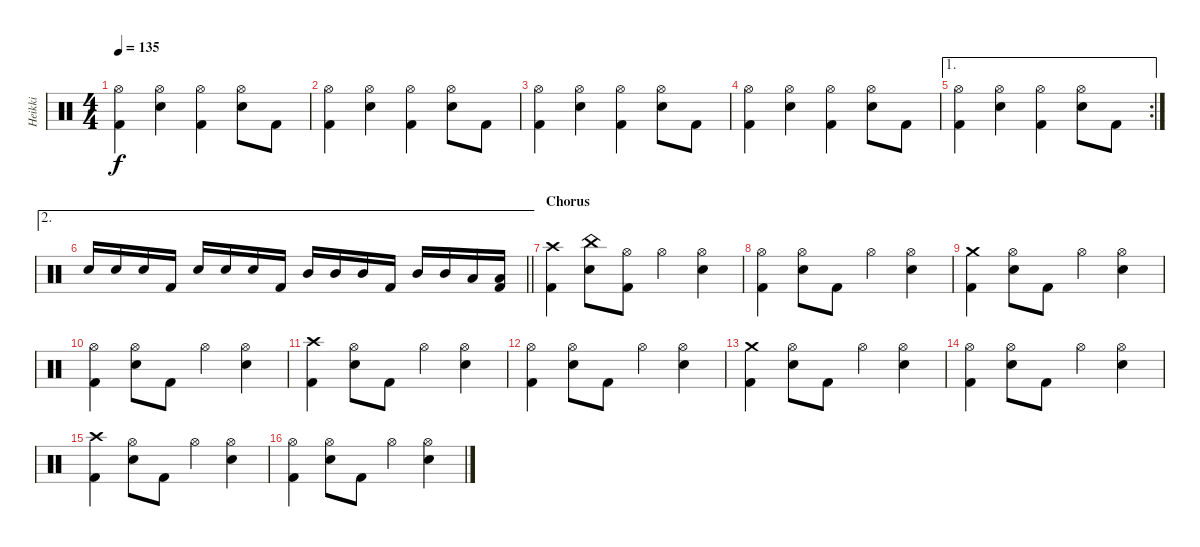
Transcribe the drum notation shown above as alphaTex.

\track ("Heikki" "Heikki") {instrument percussion}
\staff {score}
\articulation defaults
\ts (4 4)
\tempo 135
\clef neutral
\ks c
("Hi-Hat (open)" "Kick (hit) 2").4{dy f} ("Hi-Hat (open)" "Electric Snare (hit)").4 ("Hi-Hat (open)" "Kick (hit) 2").4 ("Hi-Hat (open)" "Electric Snare (hit)").8 "Kick (hit) 2".8 |
("Hi-Hat (open)" "Kick (hit) 2").4 ("Hi-Hat (open)" "Electric Snare (hit)").4 ("Hi-Hat (open)" "Kick (hit) 2").4 ("Hi-Hat (open)" "Electric Snare (hit)").8 "Kick (hit) 2".8 |
("Hi-Hat (open)" "Kick (hit) 2").4 ("Hi-Hat (open)" "Electric Snare (hit)").4 ("Hi-Hat (open)" "Kick (hit) 2").4 ("Hi-Hat (open)" "Electric Snare (hit)").8 "Kick (hit) 2".8 |
("Hi-Hat (open)" "Kick (hit) 2").4 ("Hi-Hat (open)" "Electric Snare (hit)").4 ("Hi-Hat (open)" "Kick (hit) 2").4 ("Hi-Hat (open)" "Electric Snare (hit)").8 "Kick (hit) 2".8 |
\ae 1
\rc 2
("Hi-Hat (open)" "Kick (hit) 2").4 ("Hi-Hat (open)" "Electric Snare (hit)").4 ("Hi-Hat (open)" "Kick (hit) 2").4 ("Hi-Hat (open)" "Electric Snare (hit)").8 "Kick (hit) 2".8 |
\ae 2
\barLineRight lightlight "Electric Snare (hit)".16 "Electric Snare (hit)".16 "Electric Snare (hit)".16 "Kick (hit) 2".16 "Electric Snare (hit)".16 "Electric Snare (hit)".16 "Electric Snare (hit)".16 "Kick (hit) 2".16 "Mid Tom (hit)".16 "Mid Tom (hit)".16 "Mid Tom (hit)".16 "Kick (hit) 2".16 "Mid Tom (hit)".16 "Mid Tom (hit)".16 "Low Tom (hit)".16
("Low Tom (hit)" "Kick (hit) 2").16 |
\section ("" "Chorus")
("Crash high (hit)" "Kick (hit) 2").4 ("China (hit)" "Electric Snare (hit)").8 ("Hi-Hat (open)" "Kick (hit) 2").8 "Hi-Hat (open)".4 ("Hi-Hat (open)" "Electric Snare (hit)").4 |
("Hi-Hat (open)" "Kick (hit) 2").4 ("Hi-Hat (open)" "Electric Snare (hit)").8 "Kick (hit) 2".8 "Hi-Hat (open)".4 ("Hi-Hat (open)" "Electric Snare (hit)").4 |
("Crash medium (hit)" "Kick (hit) 2").4 ("Hi-Hat (open)" "Electric Snare (hit)").8 "Kick (hit) 2".8 "Hi-Hat (open)".4 ("Hi-Hat (open)" "Electric Snare (hit)").4 |
("Hi-Hat (open)" "Kick (hit) 2").4 ("Hi-Hat (open)" "Electric Snare (hit)").8 "Kick (hit) 2".8 "Hi-Hat (open)".4 ("Hi-Hat (open)" "Electric Snare (hit)").4 |
("Crash high (hit)" "Kick (hit) 2").4 ("Hi-Hat (open)" "Electric Snare (hit)").8 "Kick (hit) 2".8 "Hi-Hat (open)".4 ("Hi-Hat (open)" "Electric Snare (hit)").4 |
("Hi-Hat (open)" "Kick (hit) 2").4 ("Hi-Hat (open)" "Electric Snare (hit)").8 "Kick (hit) 2".8 "Hi-Hat (open)".4 ("Hi-Hat (open)" "Electric Snare (hit)").4 |
("Crash medium (hit)" "Kick (hit) 2").4 ("Hi-Hat (open)" "Electric Snare (hit)").8 "Kick (hit) 2".8 "Hi-Hat (open)".4 ("Hi-Hat (open)" "Electric Snare (hit)").4 |
("Hi-Hat (open)" "Kick (hit) 2").4 ("Hi-Hat (open)" "Electric Snare (hit)").8 "Kick (hit) 2".8 "Hi-Hat (open)".4 ("Hi-Hat (open)" "Electric Snare (hit)").4 |
("Crash high (hit)" "Kick (hit) 2").4 ("Hi-Hat (open)" "Electric Snare (hit)").8 "Kick (hit) 2".8 "Hi-Hat (open)".4 ("Hi-Hat (open)" "Electric Snare (hit)").4 |
("Hi-Hat (open)" "Kick (hit) 2").4 ("Hi-Hat (open)" "Electric Snare (hit)").8 "Kick (hit) 2".8 "Hi-Hat (open)".4 ("Hi-Hat (open)" "Electric Snare (hit)").4
